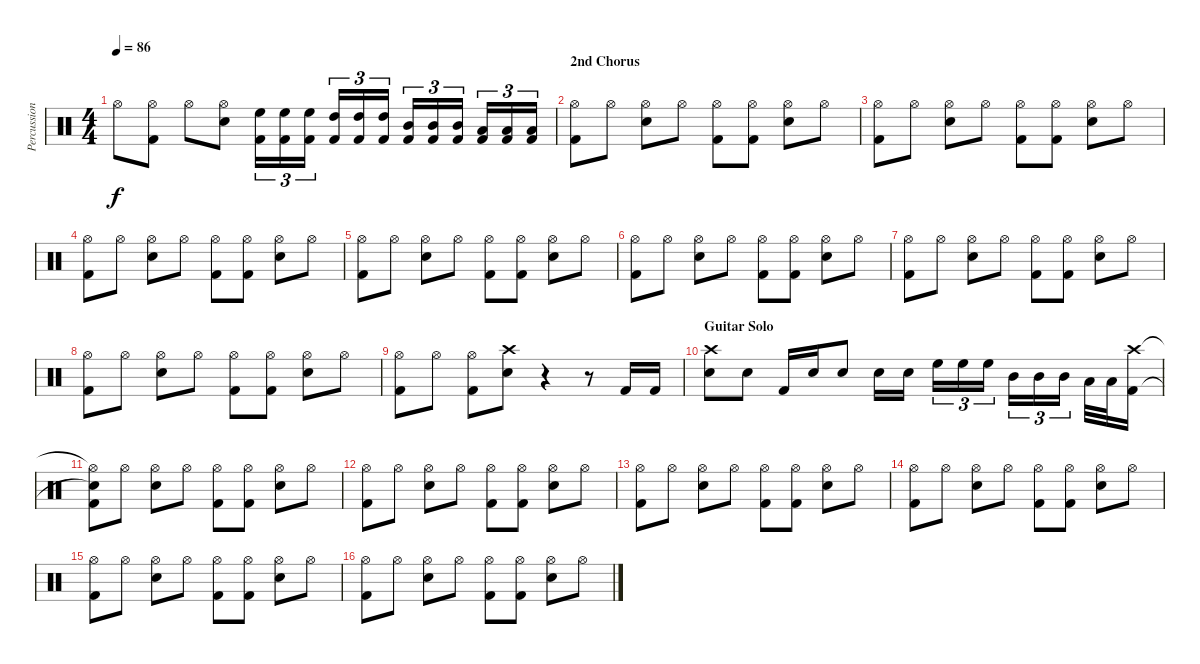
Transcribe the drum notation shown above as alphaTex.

\track ("Percussion" "Percussion") {instrument percussion}
\staff {score}
\articulation defaults
\ts (4 4)
\tempo 86
\clef neutral
\ks c "Hi-Hat (open)".8{dy f}
("Hi-Hat (open)" "Kick (hit) 2").8 "Hi-Hat (open)".8 ("Hi-Hat (open)" "Snare (hit) 2").8 ("High Floor Tom (hit)" "Kick (hit) 2").16{tu (3 2)} ("High Floor Tom (hit)" "Kick (hit) 2").16{tu (3 2)} ("High Floor Tom (hit)" "Kick (hit) 2").16{tu (3 2)} ("High Tom (hit)" "Kick (hit) 2").16{tu (3 2)} ("High Tom (hit)" "Kick (hit) 2").16{tu (3 2)} ("High Tom (hit)" "Kick (hit) 2").16{tu (3 2)} ("Mid Tom (hit)" "Kick (hit) 2").16{tu (3 2)} ("Mid Tom (hit)" "Kick (hit) 2").16{tu (3 2)} ("Mid Tom (hit)" "Kick (hit) 2").16{tu (3 2)} ("Low Tom (hit)" "Kick (hit) 2").16{tu (3 2)} ("Low Tom (hit)" "Kick (hit) 2").16{tu (3 2)} ("Low Tom (hit)" "Kick (hit) 2").16{tu (3 2)} |
\section ("" "2nd Chorus")
("Hi-Hat (open)" "Kick (hit) 2").8 "Hi-Hat (open)".8 ("Hi-Hat (open)" "Snare (hit) 2").8 "Hi-Hat (open)".8 ("Hi-Hat (open)" "Kick (hit) 2").8 ("Hi-Hat (open)" "Kick (hit) 2").8 ("Hi-Hat (open)" "Snare (hit) 2").8 "Hi-Hat (open)".8 |
("Hi-Hat (open)" "Kick (hit) 2").8 "Hi-Hat (open)".8 ("Hi-Hat (open)" "Snare (hit) 2").8 "Hi-Hat (open)".8 ("Hi-Hat (open)" "Kick (hit) 2").8 ("Hi-Hat (open)" "Kick (hit) 2").8 ("Hi-Hat (open)" "Snare (hit) 2").8 "Hi-Hat (open)".8 |
("Hi-Hat (open)" "Kick (hit) 2").8 "Hi-Hat (open)".8 ("Hi-Hat (open)" "Snare (hit) 2").8 "Hi-Hat (open)".8 ("Hi-Hat (open)" "Kick (hit) 2").8 ("Hi-Hat (open)" "Kick (hit) 2").8 ("Hi-Hat (open)" "Snare (hit) 2").8 "Hi-Hat (open)".8 |
("Hi-Hat (open)" "Kick (hit) 2").8 "Hi-Hat (open)".8 ("Hi-Hat (open)" "Snare (hit) 2").8 "Hi-Hat (open)".8 ("Hi-Hat (open)" "Kick (hit) 2").8 ("Hi-Hat (open)" "Kick (hit) 2").8 ("Hi-Hat (open)" "Snare (hit) 2").8 "Hi-Hat (open)".8 |
("Hi-Hat (open)" "Kick (hit) 2").8 "Hi-Hat (open)".8 ("Hi-Hat (open)" "Snare (hit) 2").8 "Hi-Hat (open)".8 ("Hi-Hat (open)" "Kick (hit) 2").8 ("Hi-Hat (open)" "Kick (hit) 2").8 ("Hi-Hat (open)" "Snare (hit) 2").8 "Hi-Hat (open)".8 |
("Hi-Hat (open)" "Kick (hit) 2").8 "Hi-Hat (open)".8 ("Hi-Hat (open)" "Snare (hit) 2").8 "Hi-Hat (open)".8 ("Hi-Hat (open)" "Kick (hit) 2").8 ("Hi-Hat (open)" "Kick (hit) 2").8 ("Hi-Hat (open)" "Snare (hit) 2").8 "Hi-Hat (open)".8 |
("Hi-Hat (open)" "Kick (hit) 2").8 "Hi-Hat (open)".8 ("Hi-Hat (open)" "Snare (hit) 2").8 "Hi-Hat (open)".8 ("Hi-Hat (open)" "Kick (hit) 2").8 ("Hi-Hat (open)" "Kick (hit) 2").8 ("Hi-Hat (open)" "Snare (hit) 2").8 "Hi-Hat (open)".8 |
("Hi-Hat (open)" "Kick (hit) 2").8 "Hi-Hat (open)".8 ("Hi-Hat (open)" "Kick (hit) 2").8 ("Crash high (hit)" "Snare (hit) 2").8 r.4 r.8 "Kick (hit) 2".16 "Kick (hit) 2".16 |
\section ("" "Guitar Solo")
("Crash high (hit)" "Snare (hit) 2").8 "Snare (hit) 2".8 "Kick (hit) 2".16 "Snare (hit) 2".16 "Snare (hit) 2".8 "Snare (hit) 2".16 "Snare (hit) 2".16 "High Floor Tom (hit)".16{tu (3 2)} "High Floor Tom (hit)".16{tu (3 2)} "High Floor Tom (hit)".16{tu (3 2)} "Mid Tom (hit)".16{tu (3 2)} "Mid Tom (hit)".16{tu (3 2)} "Mid Tom (hit)".16{tu (3 2)} "Low Tom (hit)".32 "Low Tom (hit)".32 ("Crash high (hit)" "Kick (hit) 2").16 |
("Hi-Hat (open)"{t} "Snare (hit)"{t} "Kick (hit) 2").8 "Hi-Hat (open)".8 ("Hi-Hat (open)" "Snare (hit) 2").8 "Hi-Hat (open)".8 ("Hi-Hat (open)" "Kick (hit) 2").8 ("Hi-Hat (open)" "Kick (hit) 2").8 ("Hi-Hat (open)" "Snare (hit) 2").8 "Hi-Hat (open)".8 |
("Hi-Hat (open)" "Kick (hit) 2").8 "Hi-Hat (open)".8 ("Hi-Hat (open)" "Snare (hit) 2").8 "Hi-Hat (open)".8 ("Hi-Hat (open)" "Kick (hit) 2").8 ("Hi-Hat (open)" "Kick (hit) 2").8 ("Hi-Hat (open)" "Snare (hit) 2").8 "Hi-Hat (open)".8 |
("Hi-Hat (open)" "Kick (hit) 2").8 "Hi-Hat (open)".8 ("Hi-Hat (open)" "Snare (hit) 2").8 "Hi-Hat (open)".8 ("Hi-Hat (open)" "Kick (hit) 2").8 ("Hi-Hat (open)" "Kick (hit) 2").8 ("Hi-Hat (open)" "Snare (hit) 2").8 "Hi-Hat (open)".8 |
("Hi-Hat (open)" "Kick (hit) 2").8 "Hi-Hat (open)".8 ("Hi-Hat (open)" "Snare (hit) 2").8 "Hi-Hat (open)".8 ("Hi-Hat (open)" "Kick (hit) 2").8 ("Hi-Hat (open)" "Kick (hit) 2").8 ("Hi-Hat (open)" "Snare (hit) 2").8 "Hi-Hat (open)".8 |
("Hi-Hat (open)" "Kick (hit) 2").8 "Hi-Hat (open)".8 ("Hi-Hat (open)" "Snare (hit) 2").8 "Hi-Hat (open)".8 ("Hi-Hat (open)" "Kick (hit) 2").8 ("Hi-Hat (open)" "Kick (hit) 2").8 ("Hi-Hat (open)" "Snare (hit) 2").8 "Hi-Hat (open)".8 |
("Hi-Hat (open)" "Kick (hit) 2").8 "Hi-Hat (open)".8 ("Hi-Hat (open)" "Snare (hit) 2").8 "Hi-Hat (open)".8 ("Hi-Hat (open)" "Kick (hit) 2").8 ("Hi-Hat (open)" "Kick (hit) 2").8 ("Hi-Hat (open)" "Snare (hit) 2").8 "Hi-Hat (open)".8
